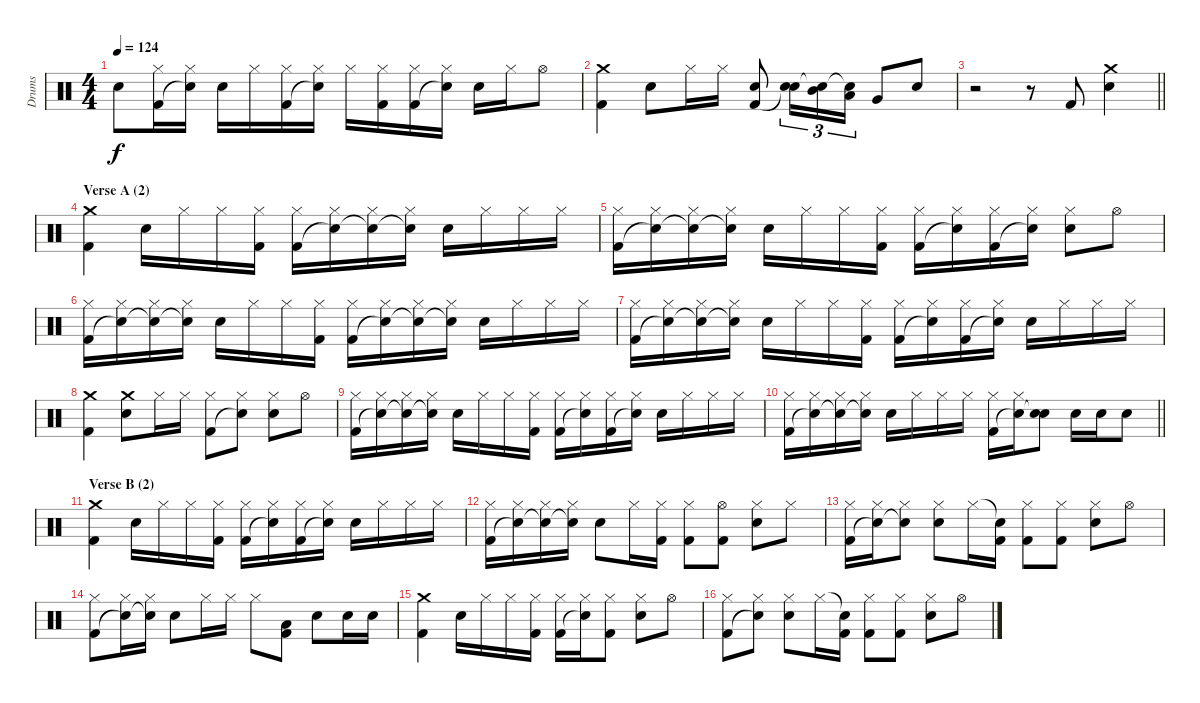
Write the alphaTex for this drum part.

\track ("Drums" "Drums") {instrument percussion}
\staff {score}
\articulation defaults
\ts (4 4)
\tempo 124
\clef neutral
\ks aminor "Snare (hit)"{t}.8{dy f}
("Hi-Hat (closed)" "Kick (hit) 2").16 ("Hi-Hat (closed)" "Snare (hit)"{t}).16 "Electric Snare (hit)".16 "Hi-Hat (closed)".16 ("Hi-Hat (closed)" "Kick (hit) 2").16 ("Hi-Hat (closed)" "Snare (hit)"{t}).16 "Hi-Hat (closed)".16 ("Hi-Hat (closed)" "Kick (hit) 2").16 ("Hi-Hat (closed)" "Kick (hit) 2").16 ("Hi-Hat (closed)" "Snare (hit)"{t}).16 "Electric Snare (hit)".16 "Hi-Hat (closed)".16 "Hi-Hat (open)".8 |
("Crash medium (hit)" "Kick (hit) 2").4 "Electric Snare (hit)".8 "Hi-Hat (closed)".16 "Hi-Hat (closed)".16 ("Electric Snare (hit)" "Kick (hit) 2").8 ("Electric Snare (hit)" "Snare (hit)"{t}).16{tu (3 2)} ("Mid Tom (hit)" "Snare (hit)"{t}).16{tu (3 2)} ("Low Tom (hit)" "Snare (hit)"{t}).16{tu (3 2)} "Very Low Tom (hit)".8 "Electric Snare (hit)".8 |
\barLineRight lightlight
r.2 r.8 "Kick (hit) 2".8 ("Crash medium (hit)" "Electric Snare (hit)").4 |
\section ("" "Verse A (2)")
("Crash medium (hit)" "Kick (hit) 2").4 "Electric Snare (hit)".16 "Hi-Hat (closed)".16 "Hi-Hat (closed)".16 ("Hi-Hat (closed)" "Kick (hit) 2").16 ("Hi-Hat (closed)" "Kick (hit) 2").16 ("Hi-Hat (closed)" "Snare (hit)"{t}).16 ("Hi-Hat (closed)" "Snare (hit)"{t}).16 ("Hi-Hat (closed)" "Snare (hit)"{t}).16 "Electric Snare (hit)".16 "Hi-Hat (closed)".16 "Hi-Hat (closed)".16 "Hi-Hat (closed)".16 |
("Hi-Hat (closed)" "Kick (hit) 2").16 ("Hi-Hat (closed)" "Snare (hit)"{t}).16 ("Hi-Hat (closed)" "Snare (hit)"{t}).16 ("Hi-Hat (closed)" "Snare (hit)"{t}).16 "Electric Snare (hit)".16 "Hi-Hat (closed)".16 "Hi-Hat (closed)".16 ("Hi-Hat (closed)" "Kick (hit) 2").16 ("Hi-Hat (closed)" "Kick (hit) 2").16 ("Hi-Hat (closed)" "Snare (hit)"{t}).16 ("Hi-Hat (closed)" "Kick (hit) 2").16 ("Hi-Hat (closed)" "Snare (hit)"{t}).16 ("Hi-Hat (closed)" "Electric Snare (hit)").8 "Hi-Hat (open)".8 |
("Hi-Hat (closed)" "Kick (hit) 2").16 ("Hi-Hat (closed)" "Snare (hit)"{t}).16 ("Hi-Hat (closed)" "Snare (hit)"{t}).16 ("Hi-Hat (closed)" "Snare (hit)"{t}).16 "Electric Snare (hit)".16 "Hi-Hat (closed)".16 "Hi-Hat (closed)".16 ("Hi-Hat (closed)" "Kick (hit) 2").16 ("Hi-Hat (closed)" "Kick (hit) 2").16 ("Hi-Hat (closed)" "Snare (hit)"{t}).16 ("Hi-Hat (closed)" "Snare (hit)"{t}).16 ("Hi-Hat (closed)" "Snare (hit)"{t}).16 "Electric Snare (hit)".16 "Hi-Hat (closed)".16 "Hi-Hat (closed)".16 "Hi-Hat (closed)".16 |
("Hi-Hat (closed)" "Kick (hit) 2").16 ("Hi-Hat (closed)" "Snare (hit)"{t}).16 ("Hi-Hat (closed)" "Snare (hit)"{t}).16 ("Hi-Hat (closed)" "Snare (hit)"{t}).16 "Electric Snare (hit)".16 "Hi-Hat (closed)".16 "Hi-Hat (closed)".16 ("Hi-Hat (closed)" "Kick (hit) 2").16 ("Hi-Hat (closed)" "Kick (hit) 2").16 ("Hi-Hat (closed)" "Snare (hit)"{t}).16 ("Hi-Hat (closed)" "Kick (hit) 2").16 ("Hi-Hat (closed)" "Snare (hit)"{t}).16 "Electric Snare (hit)".16 "Hi-Hat (closed)".16 "Hi-Hat (closed)".16 "Hi-Hat (closed)".16 |
("Crash medium (hit)" "Kick (hit) 2").4 ("Crash medium (hit)" "Electric Snare (hit)").8 "Hi-Hat (closed)".16 "Hi-Hat (closed)".16 ("Hi-Hat (closed)" "Kick (hit) 2").8 ("Hi-Hat (closed)" "Snare (hit)"{t}).8 ("Hi-Hat (closed)" "Electric Snare (hit)").8 "Hi-Hat (open)".8 |
("Hi-Hat (closed)" "Kick (hit) 2").16 ("Hi-Hat (closed)" "Snare (hit)"{t}).16 ("Hi-Hat (closed)" "Snare (hit)"{t}).16 ("Hi-Hat (closed)" "Snare (hit)"{t}).16 "Electric Snare (hit)".16 "Hi-Hat (closed)".16 "Hi-Hat (closed)".16 ("Hi-Hat (closed)" "Kick (hit) 2").16 ("Hi-Hat (closed)" "Kick (hit) 2").16 ("Hi-Hat (closed)" "Snare (hit)"{t}).16 ("Hi-Hat (closed)" "Kick (hit) 2").16 ("Hi-Hat (closed)" "Snare (hit)"{t}).16 "Electric Snare (hit)".16 "Hi-Hat (closed)".16 "Hi-Hat (closed)".16 "Hi-Hat (closed)".16 |
\barLineRight lightlight
("Hi-Hat (closed)" "Kick (hit) 2").16 ("Hi-Hat (closed)" "Snare (hit)"{t}).16 ("Hi-Hat (closed)" "Snare (hit)"{t}).16 ("Hi-Hat (closed)" "Snare (hit)"{t}).16 "Electric Snare (hit)".16 "Hi-Hat (closed)".16 "Hi-Hat (closed)".16 "Hi-Hat (closed)".16 ("Hi-Hat (closed)" "Kick (hit) 2").16 ("Hi-Hat (closed)" "Snare (hit)"{t}).16 ("Electric Snare (hit)" "Snare (hit)"{t}).8 "Electric Snare (hit)".16 "Electric Snare (hit)".16 "Electric Snare (hit)".8 |
\section ("" "Verse B (2)")
("Crash medium (hit)" "Kick (hit) 2").4 "Electric Snare (hit)".16 "Hi-Hat (closed)".16 "Hi-Hat (closed)".16 ("Hi-Hat (closed)" "Kick (hit) 2").16 ("Hi-Hat (closed)" "Kick (hit) 2").16 ("Hi-Hat (closed)" "Snare (hit)"{t}).16 ("Hi-Hat (closed)" "Kick (hit) 2").16 ("Hi-Hat (closed)" "Snare (hit)"{t}).16 "Electric Snare (hit)".16 "Hi-Hat (closed)".16 "Hi-Hat (closed)".16 "Hi-Hat (closed)".16 |
("Hi-Hat (closed)" "Kick (hit) 2").16 ("Hi-Hat (closed)" "Snare (hit)"{t}).16 ("Hi-Hat (closed)" "Snare (hit)"{t}).16 ("Hi-Hat (closed)" "Snare (hit)"{t}).16 "Electric Snare (hit)".8 "Hi-Hat (closed)".16 ("Hi-Hat (closed)" "Kick (hit) 2").16 ("Hi-Hat (closed)" "Kick (hit) 2").8 ("Hi-Hat (open)" "Kick (hit) 2").8 ("Hi-Hat (closed)" "Electric Snare (hit)").8 "Hi-Hat (closed)".8 |
("Hi-Hat (closed)" "Kick (hit) 2").16 ("Hi-Hat (closed)" "Snare (hit)"{t}).16 ("Hi-Hat (closed)" "Snare (hit)"{t}).8 ("Hi-Hat (closed)" "Electric Snare (hit)").8 "Hi-Hat (closed)".16 ("Snare (hit)"{t} "Kick (hit) 2").16 ("Hi-Hat (closed)" "Kick (hit) 2").8 ("Hi-Hat (closed)" "Kick (hit) 2").8 ("Hi-Hat (closed)" "Electric Snare (hit)").8 "Hi-Hat (open)".8 |
("Hi-Hat (closed)" "Kick (hit) 2").8 ("Hi-Hat (closed)" "Snare (hit)"{t}).16 ("Hi-Hat (closed)" "Snare (hit)"{t}).16 "Electric Snare (hit)".8 "Hi-Hat (closed)".16 "Hi-Hat (closed)".16 "Hi-Hat (closed)".8 ("Low Tom (hit)" "Kick (hit) 2").8 "Electric Snare (hit)".8 "Electric Snare (hit)".16 "Electric Snare (hit)".16 |
("Crash medium (hit)" "Kick (hit) 2").4 "Electric Snare (hit)".16 "Hi-Hat (closed)".16 "Hi-Hat (closed)".16 ("Hi-Hat (closed)" "Kick (hit) 2").16 ("Hi-Hat (closed)" "Kick (hit) 2").16 ("Hi-Hat (closed)" "Snare (hit)"{t}).16 ("Hi-Hat (closed)" "Kick (hit) 2").8 ("Hi-Hat (closed)" "Electric Snare (hit)").8 "Hi-Hat (open)".8 |
("Hi-Hat (closed)" "Kick (hit) 2").8 ("Hi-Hat (closed)" "Snare (hit)"{t}).8 ("Hi-Hat (closed)" "Electric Snare (hit)").8 "Hi-Hat (closed)".16 ("Snare (hit)"{t} "Kick (hit) 2").16 ("Hi-Hat (closed)" "Kick (hit) 2").8 ("Hi-Hat (closed)" "Kick (hit) 2").8 ("Hi-Hat (closed)" "Electric Snare (hit)").8 "Hi-Hat (open)".8
